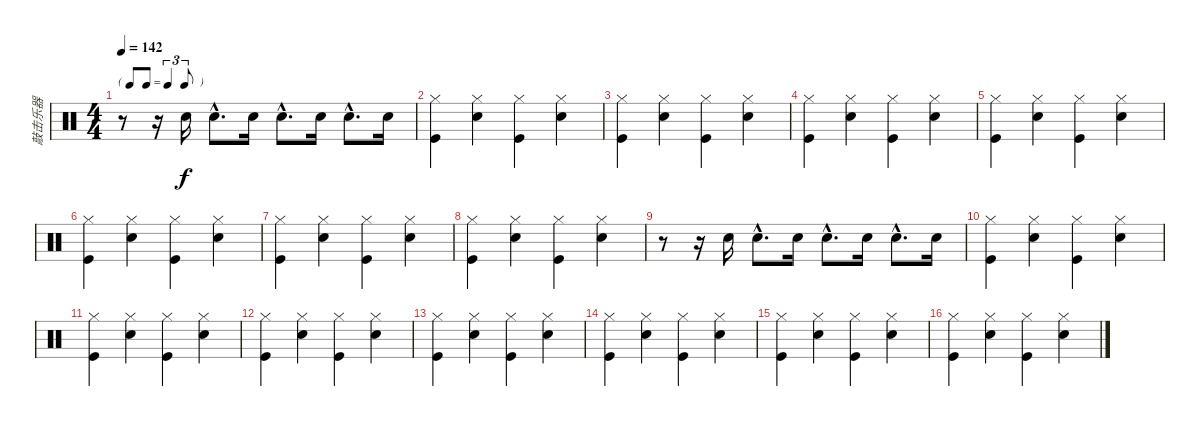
\track ("敲击乐器" "敲击乐器") {instrument percussion}
\staff {score}
\articulation defaults
\ts (4 4)
\tf triplet8th
\tempo 142
\clef neutral
\ks c
r.8{dy f} r.16 "Electric Snare (hit)".16 "Electric Snare (hit)"{hac}.8{d} "Electric Snare (hit)".16 "Electric Snare (hit)"{hac}.8{d} "Electric Snare (hit)".16 "Electric Snare (hit)"{hac}.8{d} "Electric Snare (hit)".16 |
("Hi-Hat (closed)" "Kick (hit)").4 ("Hi-Hat (closed)" "Electric Snare (hit)").4 ("Hi-Hat (closed)" "Kick (hit)").4 ("Hi-Hat (closed)" "Electric Snare (hit)").4 |
("Hi-Hat (closed)" "Kick (hit)").4 ("Hi-Hat (closed)" "Electric Snare (hit)").4 ("Hi-Hat (closed)" "Kick (hit)").4 ("Hi-Hat (closed)" "Electric Snare (hit)").4 |
("Hi-Hat (closed)" "Kick (hit)").4 ("Hi-Hat (closed)" "Electric Snare (hit)").4 ("Hi-Hat (closed)" "Kick (hit)").4 ("Hi-Hat (closed)" "Electric Snare (hit)").4 |
("Hi-Hat (closed)" "Kick (hit)").4 ("Hi-Hat (closed)" "Electric Snare (hit)").4 ("Hi-Hat (closed)" "Kick (hit)").4 ("Hi-Hat (closed)" "Electric Snare (hit)").4 |
("Hi-Hat (closed)" "Kick (hit)").4 ("Hi-Hat (closed)" "Electric Snare (hit)").4 ("Hi-Hat (closed)" "Kick (hit)").4 ("Hi-Hat (closed)" "Electric Snare (hit)").4 |
("Hi-Hat (closed)" "Kick (hit)").4 ("Hi-Hat (closed)" "Electric Snare (hit)").4 ("Hi-Hat (closed)" "Kick (hit)").4 ("Hi-Hat (closed)" "Electric Snare (hit)").4 |
("Hi-Hat (closed)" "Kick (hit)").4 ("Hi-Hat (closed)" "Electric Snare (hit)").4 ("Hi-Hat (closed)" "Kick (hit)").4 ("Hi-Hat (closed)" "Electric Snare (hit)").4 |
r.8 r.16 "Electric Snare (hit)".16 "Electric Snare (hit)"{hac}.8{d} "Electric Snare (hit)".16 "Electric Snare (hit)"{hac}.8{d} "Electric Snare (hit)".16 "Electric Snare (hit)"{hac}.8{d} "Electric Snare (hit)".16 |
("Hi-Hat (closed)" "Kick (hit)").4 ("Hi-Hat (closed)" "Electric Snare (hit)").4 ("Hi-Hat (closed)" "Kick (hit)").4 ("Hi-Hat (closed)" "Electric Snare (hit)").4 |
("Hi-Hat (closed)" "Kick (hit)").4 ("Hi-Hat (closed)" "Electric Snare (hit)").4 ("Hi-Hat (closed)" "Kick (hit)").4 ("Hi-Hat (closed)" "Electric Snare (hit)").4 |
("Hi-Hat (closed)" "Kick (hit)").4 ("Hi-Hat (closed)" "Electric Snare (hit)").4 ("Hi-Hat (closed)" "Kick (hit)").4 ("Hi-Hat (closed)" "Electric Snare (hit)").4 |
("Hi-Hat (closed)" "Kick (hit)").4 ("Hi-Hat (closed)" "Electric Snare (hit)").4 ("Hi-Hat (closed)" "Kick (hit)").4 ("Hi-Hat (closed)" "Electric Snare (hit)").4 |
("Hi-Hat (closed)" "Kick (hit)").4 ("Hi-Hat (closed)" "Electric Snare (hit)").4 ("Hi-Hat (closed)" "Kick (hit)").4 ("Hi-Hat (closed)" "Electric Snare (hit)").4 |
("Hi-Hat (closed)" "Kick (hit)").4 ("Hi-Hat (closed)" "Electric Snare (hit)").4 ("Hi-Hat (closed)" "Kick (hit)").4 ("Hi-Hat (closed)" "Electric Snare (hit)").4 |
("Hi-Hat (closed)" "Kick (hit)").4 ("Hi-Hat (closed)" "Electric Snare (hit)").4 ("Hi-Hat (closed)" "Kick (hit)").4 ("Hi-Hat (closed)" "Electric Snare (hit)").4
